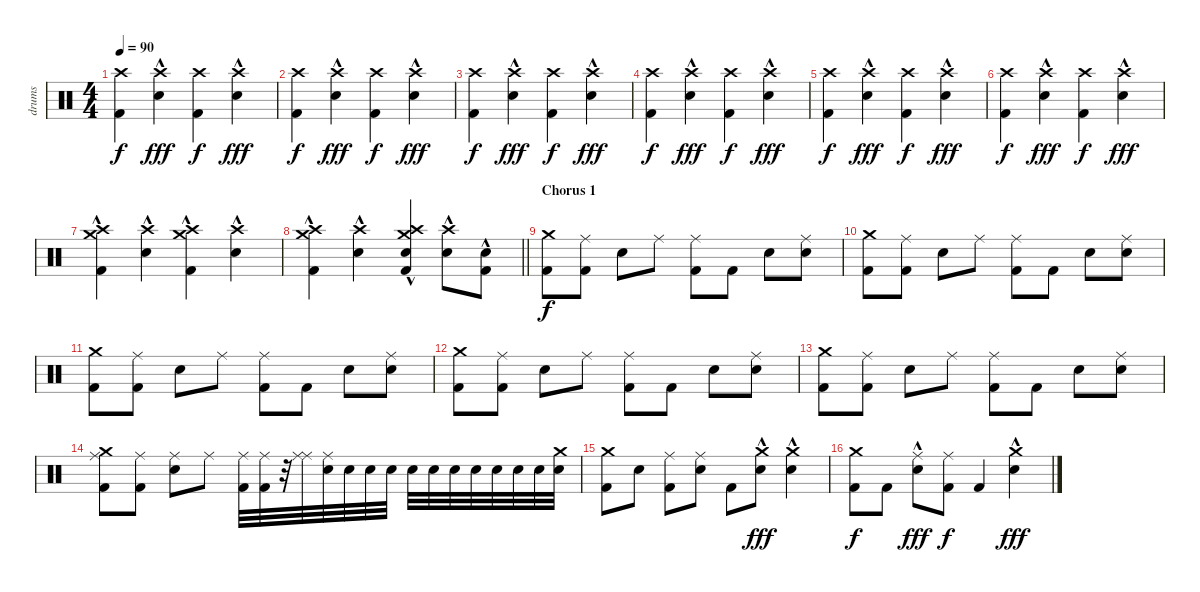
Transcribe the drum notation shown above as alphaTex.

\track ("drums" "drums") {instrument percussion}
\staff {score}
\articulation defaults
\ts (4 4)
\tempo 90
\clef neutral
\ks c
("Kick (hit) 2" "Crash high (hit)").4{dy f} ("Electric Snare (hit)"{hac} "Crash high (hit)").4{dy fff} ("Kick (hit) 2" "Crash high (hit)").4{dy f} ("Electric Snare (hit)"{hac} "Crash high (hit)").4{dy fff} |
("Kick (hit) 2" "Crash high (hit)").4{dy f} ("Electric Snare (hit)"{hac} "Crash high (hit)").4{dy fff} ("Kick (hit) 2" "Crash high (hit)").4{dy f} ("Electric Snare (hit)"{hac} "Crash high (hit)").4{dy fff} |
("Kick (hit) 2" "Crash high (hit)").4{dy f} ("Electric Snare (hit)"{hac} "Crash high (hit)").4{dy fff} ("Kick (hit) 2" "Crash high (hit)").4{dy f} ("Electric Snare (hit)"{hac} "Crash high (hit)").4{dy fff} |
("Kick (hit) 2" "Crash high (hit)").4{dy f} ("Electric Snare (hit)"{hac} "Crash high (hit)").4{dy fff} ("Kick (hit) 2" "Crash high (hit)").4{dy f} ("Electric Snare (hit)"{hac} "Crash high (hit)").4{dy fff} |
("Kick (hit) 2" "Crash high (hit)").4{dy f} ("Electric Snare (hit)"{hac} "Crash high (hit)").4{dy fff} ("Kick (hit) 2" "Crash high (hit)").4{dy f} ("Electric Snare (hit)"{hac} "Crash high (hit)").4{dy fff} |
("Kick (hit) 2" "Crash high (hit)").4{dy f} ("Electric Snare (hit)"{hac} "Crash high (hit)").4{dy fff} ("Kick (hit) 2" "Crash high (hit)").4{dy f} ("Electric Snare (hit)"{hac} "Crash high (hit)").4{dy fff} |
("Kick (hit) 2" "Crash high (hit)"{hac} "Crash medium (hit)"{hac}).4 ("Electric Snare (hit)"{hac} "Crash high (hit)").4 ("Kick (hit) 2" "Crash high (hit)"{hac} "Crash medium (hit)"{hac}).4 ("Electric Snare (hit)"{hac} "Crash high (hit)").4 |
\barLineRight lightlight
("Kick (hit) 2" "Crash high (hit)"{hac} "Crash medium (hit)"{hac}).4 ("Electric Snare (hit)"{hac} "Crash high (hit)").4 ("Snare (hit) 2" "Kick (hit) 2" "Crash high (hit)"{hac} "Crash medium (hit)"{hac}).4 ("Electric Snare (hit)"{hac} "Crash high (hit)").8 ("Electric Snare (hit)"{hac} "Kick (hit) 2"{hac}).8 |
\section ("" "Chorus 1")
("Crash medium (hit)" "Kick (hit) 2").8{dy f} ("Kick (hit) 2" "Ride (middle)").8 "Electric Snare (hit)".8 "Ride (middle)".8 ("Kick (hit) 2" "Ride (middle)").8 "Kick (hit) 2".8 "Electric Snare (hit)".8 ("Electric Snare (hit)" "Ride (middle)").8 |
("Crash medium (hit)" "Kick (hit) 2").8 ("Kick (hit) 2" "Ride (middle)").8 "Electric Snare (hit)".8 "Ride (middle)".8 ("Kick (hit) 2" "Ride (middle)").8 "Kick (hit) 2".8 "Electric Snare (hit)".8 ("Electric Snare (hit)" "Ride (middle)").8 |
("Crash medium (hit)" "Kick (hit) 2").8 ("Kick (hit) 2" "Ride (middle)").8 "Electric Snare (hit)".8 "Ride (middle)".8 ("Kick (hit) 2" "Ride (middle)").8 "Kick (hit) 2".8 "Electric Snare (hit)".8 ("Electric Snare (hit)" "Ride (middle)").8 |
("Crash medium (hit)" "Kick (hit) 2").8 ("Kick (hit) 2" "Ride (middle)").8 "Electric Snare (hit)".8 "Ride (middle)".8 ("Kick (hit) 2" "Ride (middle)").8 "Kick (hit) 2".8 "Electric Snare (hit)".8 ("Electric Snare (hit)" "Ride (middle)").8 |
("Crash medium (hit)" "Kick (hit) 2").8 ("Kick (hit) 2" "Ride (middle)").8 "Electric Snare (hit)".8 "Ride (middle)".8 ("Kick (hit) 2" "Ride (middle)").8 "Kick (hit) 2".8 "Electric Snare (hit)".8 ("Electric Snare (hit)" "Ride (middle)").8 |
("Crash medium (hit)" "Kick (hit) 2" "Ride (middle)").8 ("Kick (hit) 2" "Ride (middle)").8 ("Electric Snare (hit)" "Ride (middle)").8 "Ride (middle)".8 ("Kick (hit) 2" "Ride (middle)").32 ("Kick (hit) 2" "Ride (middle)").32 r.32 ("Ride (middle)" "Ride (middle)").32 ("Electric Snare (hit)" "Ride (middle)").32 "Electric Snare (hit)".32 "Electric Snare (hit)".32 "Electric Snare (hit)".32 "Electric Snare (hit)".32 "Electric Snare (hit)".32 "Electric Snare (hit)".32 "Electric Snare (hit)".32 "Electric Snare (hit)".32 "Electric Snare (hit)".32 "Electric Snare (hit)".32 ("Electric Snare (hit)" "Crash medium (hit)").32 |
("Kick (hit) 2" "Crash medium (hit)").8 "Electric Snare (hit)".8 ("Kick (hit) 2" "Ride (middle)").8 ("Electric Snare (hit)" "Ride (middle)").8 "Kick (hit) 2".8 ("Electric Snare (hit)"{hac} "Crash medium (hit)"{hac}).8{dy fff} ("Electric Snare (hit)"{hac} "Crash medium (hit)"{hac}).4 |
("Kick (hit) 2" "Crash medium (hit)").8{dy f} "Kick (hit) 2".8 ("Electric Snare (hit)"{hac} "Ride (middle)").8{dy fff} ("Kick (hit) 2" "Ride (middle)").8{dy f} "Kick (hit) 2".4 ("Electric Snare (hit)"{hac} "Crash medium (hit)"{hac}).4{dy fff}
